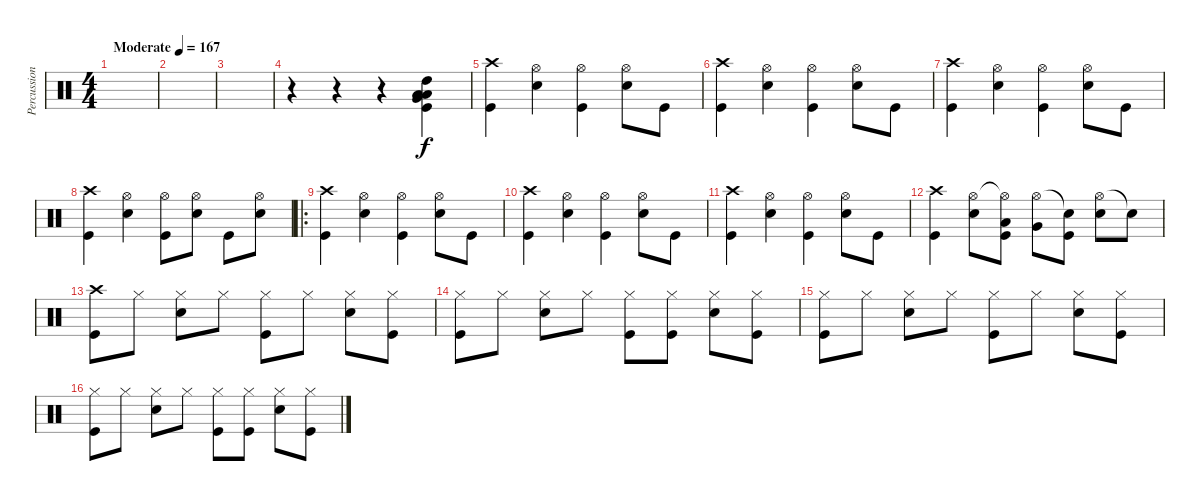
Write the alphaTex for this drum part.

\track ("Percussion" "Percussion") {instrument percussion}
\staff {score}
\articulation defaults
\ts (4 4)
\tempo (167 "Moderate")
\clef neutral
\ks c
|
|
|
r.4 r.4 r.4 ("Very Low Tom (hit)" "Low Floor Tom (hit)" "Kick (hit)" "Low Tom (hit)" "High Tom (hit)").4 |
("Crash high (hit)" "Kick (hit)").4 ("Hi-Hat (open)" "Electric Snare (hit)").4 ("Hi-Hat (open)" "Kick (hit)").4 ("Hi-Hat (open)" "Electric Snare (hit)").8 "Kick (hit)".8 |
("Crash high (hit)" "Kick (hit)").4 ("Hi-Hat (open)" "Electric Snare (hit)").4 ("Hi-Hat (open)" "Kick (hit)").4 ("Hi-Hat (open)" "Electric Snare (hit)").8 "Kick (hit)".8 |
("Crash high (hit)" "Kick (hit)").4 ("Hi-Hat (open)" "Electric Snare (hit)").4 ("Hi-Hat (open)" "Kick (hit)").4 ("Hi-Hat (open)" "Electric Snare (hit)").8 "Kick (hit)".8 |
("Crash high (hit)" "Kick (hit)").4 ("Hi-Hat (open)" "Electric Snare (hit)").4 ("Hi-Hat (open)" "Kick (hit)").8 ("Hi-Hat (open)" "Electric Snare (hit)").8 "Kick (hit)".8 ("Hi-Hat (open)" "Electric Snare (hit)").8 |
\ro
("Crash high (hit)" "Kick (hit)").4 ("Hi-Hat (open)" "Electric Snare (hit)").4 ("Hi-Hat (open)" "Kick (hit)").4 ("Hi-Hat (open)" "Electric Snare (hit)").8 "Kick (hit)".8 |
("Crash high (hit)" "Kick (hit)").4 ("Hi-Hat (open)" "Electric Snare (hit)").4 ("Hi-Hat (open)" "Kick (hit)").4 ("Hi-Hat (open)" "Electric Snare (hit)").8 "Kick (hit)".8 |
("Crash high (hit)" "Kick (hit)").4 ("Hi-Hat (open)" "Electric Snare (hit)").4 ("Hi-Hat (open)" "Kick (hit)").4 ("Hi-Hat (open)" "Electric Snare (hit)").8 "Kick (hit)".8 |
("Crash high (hit)" "Kick (hit)").4 ("Hi-Hat (open)" "Electric Snare (hit)").8 ("Hi-Hat (open)"{t} "Low Tom (hit)" "Kick (hit)").8 ("Hi-Hat (open)" "Very Low Tom (hit)").8 ("Snare (hit)"{t} "Kick (hit)").8 ("Hi-Hat (open)" "Electric Snare (hit)").8 "Snare (hit)"{t}.8 |
("Crash high (hit)" "Kick (hit)").8 "Hi-Hat (closed)".8 ("Hi-Hat (closed)" "Electric Snare (hit)").8 "Hi-Hat (closed)".8 ("Hi-Hat (closed)" "Kick (hit)").8 "Hi-Hat (closed)".8 ("Hi-Hat (closed)" "Electric Snare (hit)").8 ("Hi-Hat (closed)" "Kick (hit)").8 |
("Hi-Hat (closed)" "Kick (hit)").8 "Hi-Hat (closed)".8 ("Hi-Hat (closed)" "Electric Snare (hit)").8 "Hi-Hat (closed)".8 ("Hi-Hat (closed)" "Kick (hit)").8 ("Hi-Hat (closed)" "Kick (hit)").8 ("Hi-Hat (closed)" "Electric Snare (hit)").8 ("Hi-Hat (closed)" "Kick (hit)").8 |
("Hi-Hat (closed)" "Kick (hit)").8 "Hi-Hat (closed)".8 ("Hi-Hat (closed)" "Electric Snare (hit)").8 "Hi-Hat (closed)".8 ("Hi-Hat (closed)" "Kick (hit)").8 "Hi-Hat (closed)".8 ("Hi-Hat (closed)" "Electric Snare (hit)").8 ("Hi-Hat (closed)" "Kick (hit)").8 |
("Hi-Hat (closed)" "Kick (hit)").8 "Hi-Hat (closed)".8 ("Hi-Hat (closed)" "Electric Snare (hit)").8 "Hi-Hat (closed)".8 ("Hi-Hat (closed)" "Kick (hit)").8 ("Hi-Hat (closed)" "Kick (hit)").8 ("Hi-Hat (closed)" "Electric Snare (hit)").8 ("Hi-Hat (closed)" "Kick (hit)").8
